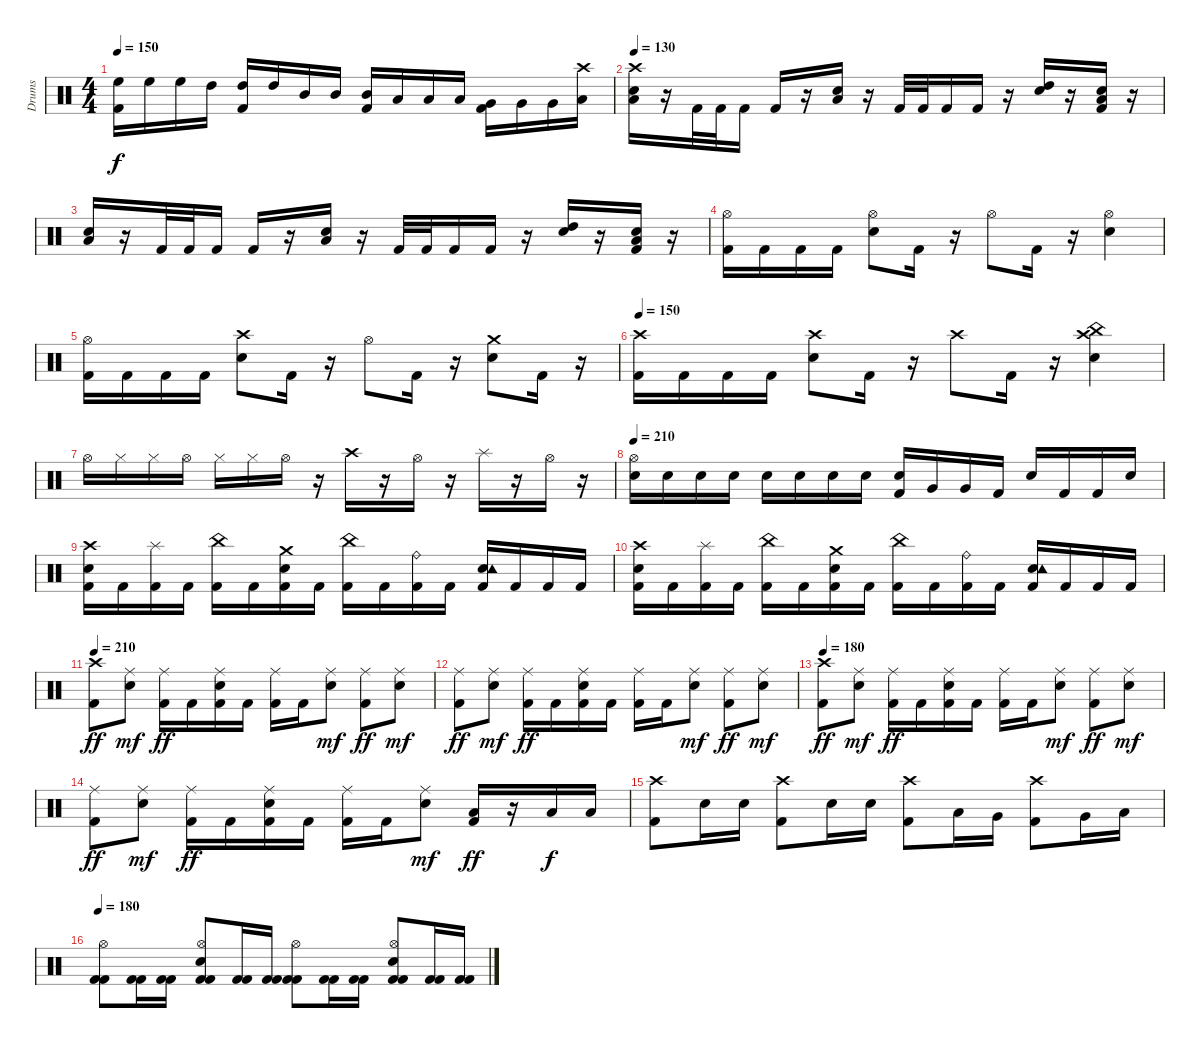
\track ("Drums" "Drums") {instrument percussion}
\staff {score}
\articulation defaults
\ts (4 4)
\tempo 150
\clef neutral
\ks c
("High Floor Tom (hit)" "Kick (hit) 2").16{dy f} "High Floor Tom (hit)".16 "High Floor Tom (hit)".16 "High Tom (hit)".16 ("High Tom (hit)" "Kick (hit) 2").16 "High Tom (hit)".16 "Mid Tom (hit)".16 "Mid Tom (hit)".16 ("Mid Tom (hit)" "Kick (hit) 2").16 "Low Tom (hit)".16 "Low Tom (hit)".16 "Low Tom (hit)".16 ("Very Low Tom (hit)" "Kick (hit) 2").16 "Very Low Tom (hit)".16 "Very Low Tom (hit)".16 ("Crash high (hit)" "Low Floor Tom (hit)").16 |
\tempo 130
("Snare (hit) 2" "Low Floor Tom (hit)" "Crash high (hit)").16 r.16 "Kick (hit) 2".32 "Kick (hit) 2".32 "Kick (hit) 2".16 "Kick (hit) 2".16 r.16 ("Snare (hit) 2" "Low Floor Tom (hit)").16 r.16 "Kick (hit) 2".32 "Kick (hit) 2".32 "Kick (hit) 2".16 "Kick (hit) 2".16 r.16 ("Snare (hit) 2" "High Tom (hit)").16 r.16 ("Kick (hit) 2" "Snare (hit) 2" "Low Tom (hit)").16 r.16 |
("Snare (hit) 2" "Low Floor Tom (hit)").16 r.16 "Kick (hit) 2".32 "Kick (hit) 2".32 "Kick (hit) 2".16 "Kick (hit) 2".16 r.16 ("Snare (hit) 2" "Low Floor Tom (hit)").16 r.16 "Kick (hit) 2".32 "Kick (hit) 2".32 "Kick (hit) 2".16 "Kick (hit) 2".16 r.16 ("Snare (hit) 2" "High Tom (hit)").16 r.16 ("Kick (hit) 2" "Snare (hit) 2" "Low Tom (hit)").16 r.16 |
("Kick (hit) 2" "Hi-Hat (open)").16 "Kick (hit) 2".16 "Kick (hit) 2".16 "Kick (hit) 2".16 ("Snare (hit) 2" "Hi-Hat (open)").8 "Kick (hit) 2".16 r.16 "Hi-Hat (open)".8 "Kick (hit) 2".16 r.16 ("Snare (hit) 2" "Hi-Hat (open)").4 |
("Kick (hit) 2" "Hi-Hat (open)").16 "Kick (hit) 2".16 "Kick (hit) 2".16 "Kick (hit) 2".16 ("Snare (hit) 2" "Crash high (hit)").8 "Kick (hit) 2".16 r.16 "Hi-Hat (open)".8 "Kick (hit) 2".16 r.16 ("Snare (hit) 2" "Crash medium (hit)").8 "Kick (hit) 2".16 r.16 |
\tempo 150
("Kick (hit) 2" "Crash high (hit)").16 "Kick (hit) 2".16 "Kick (hit) 2".16 "Kick (hit) 2".16 ("Snare (hit) 2" "Crash high (hit)").8 "Kick (hit) 2".16 r.16 "Crash high (hit)".8 "Kick (hit) 2".16 r.16 ("Snare (hit) 2" "China (hit)" "Crash high (hit)").4 |
"Hi-Hat (open)".16 "Hi-Hat (closed)".16 "Hi-Hat (closed)".16 "Hi-Hat (open)".16 "Hi-Hat (closed)".16 "Hi-Hat (closed)".16 "Hi-Hat (open)".16 r.16 "Crash high (hit)".16 r.16 "Hi-Hat (open)".16 r.16 "Splash (hit)".16 r.16 "Hi-Hat (open)".16 r.16 |
\tempo 210
("Hi-Hat (open)" "Snare (hit) 2").16 "Snare (hit) 2".16 "Snare (hit) 2".16 "Snare (hit) 2".16 "Snare (hit) 2".16 "Snare (hit) 2".16 "Snare (hit) 2".16 "Snare (hit) 2".16 ("Kick (hit) 2" "Snare (hit) 2").16 "Very Low Tom (hit)".16 "Very Low Tom (hit)".16 "Kick (hit) 2".16 "Snare (hit) 2".16 "Kick (hit) 2".16 "Kick (hit) 2".16 "Snare (hit) 2".16 |
("Kick (hit) 2" "Snare (hit) 2" "Crash high (hit)").16 "Kick (hit) 2".16 ("Kick (hit) 2" "Splash (hit)").16 "Kick (hit) 2".16 ("Kick (hit) 2" "China (hit)").16 "Kick (hit) 2".16 ("Kick (hit) 2" "Snare (hit) 2" "Crash medium (hit)").16 "Kick (hit) 2".16 ("Kick (hit) 2" "China (hit)").16 "Kick (hit) 2".16 ("Kick (hit) 2" "Ride (bell)").16 "Kick (hit) 2".16 ("Kick (hit) 2" "Snare (hit) 2" "Tambourine (hit)").16 "Kick (hit) 2".16 "Kick (hit) 2".16 "Kick (hit) 2".16 |
("Kick (hit) 2" "Snare (hit) 2" "Crash high (hit)").16 "Kick (hit) 2".16 ("Kick (hit) 2" "Splash (hit)").16 "Kick (hit) 2".16 ("Kick (hit) 2" "China (hit)").16 "Kick (hit) 2".16 ("Kick (hit) 2" "Snare (hit) 2" "Crash medium (hit)").16 "Kick (hit) 2".16 ("Kick (hit) 2" "China (hit)").16 "Kick (hit) 2".16 ("Kick (hit) 2" "Ride (bell)").16 "Kick (hit) 2".16 ("Kick (hit) 2" "Snare (hit) 2" "Tambourine (hit)").16 "Kick (hit) 2".16 "Kick (hit) 2".16 "Kick (hit) 2".16 |
\tempo 210
("Crash high (hit)" "Kick (hit) 2").8{dy ff} ("Ride (middle)" "Snare (hit) 2").8{dy mf} ("Ride (middle)" "Kick (hit) 2").16{dy ff} "Kick (hit) 2".16 ("Ride (middle)" "Snare (hit) 2" "Kick (hit) 2").16 "Kick (hit) 2".16 ("Ride (middle)" "Kick (hit) 2").16 "Kick (hit) 2".16 ("Ride (middle)" "Snare (hit) 2").8{dy mf} ("Ride (middle)" "Kick (hit) 2").8{dy ff} ("Ride (middle)" "Snare (hit) 2").8{dy mf} |
("Ride (middle)" "Kick (hit) 2").8{dy ff} ("Ride (middle)" "Snare (hit) 2").8{dy mf} ("Ride (middle)" "Kick (hit) 2").16{dy ff} "Kick (hit) 2".16 ("Ride (middle)" "Snare (hit) 2" "Kick (hit) 2").16 "Kick (hit) 2".16 ("Ride (middle)" "Kick (hit) 2").16 "Kick (hit) 2".16 ("Ride (middle)" "Snare (hit) 2").8{dy mf} ("Ride (middle)" "Kick (hit) 2").8{dy ff} ("Ride (middle)" "Snare (hit) 2").8{dy mf} |
\tempo 180
("Crash high (hit)" "Kick (hit) 2").8{dy ff} ("Ride (middle)" "Snare (hit) 2").8{dy mf} ("Ride (middle)" "Kick (hit) 2").16{dy ff} "Kick (hit) 2".16 ("Ride (middle)" "Snare (hit) 2" "Kick (hit) 2").16 "Kick (hit) 2".16 ("Ride (middle)" "Kick (hit) 2").16 "Kick (hit) 2".16 ("Ride (middle)" "Snare (hit) 2").8{dy mf} ("Ride (middle)" "Kick (hit) 2").8{dy ff} ("Ride (middle)" "Snare (hit) 2").8{dy mf} |
("Ride (middle)" "Kick (hit) 2").8{dy ff} ("Ride (middle)" "Snare (hit) 2").8{dy mf} ("Ride (middle)" "Kick (hit) 2").16{dy ff} "Kick (hit) 2".16 ("Ride (middle)" "Snare (hit) 2" "Kick (hit) 2").16 "Kick (hit) 2".16 ("Ride (middle)" "Kick (hit) 2").16 "Kick (hit) 2".16 ("Ride (middle)" "Snare (hit) 2").8{dy mf} ("Low Tom (hit)" "Kick (hit) 2").16{dy ff} r.16 "Low Floor Tom (hit)".16{dy f} "Low Floor Tom (hit)".16 |
("Crash high (hit)" "Kick (hit) 2").8 "Electric Snare (hit)".16 "Electric Snare (hit)".16 ("Crash high (hit)" "Kick (hit) 2").8 "Electric Snare (hit)".16 "Electric Snare (hit)".16 ("Crash high (hit)" "Kick (hit) 2").8 "Low Tom (hit)".16 "Very Low Tom (hit)".16 ("Crash high (hit)" "Kick (hit) 2").8 "Very Low Tom (hit)".16 "Low Floor Tom (hit)".16 |
\tempo 180
("Hi-Hat (open)" "Kick (hit) 2" "Kick (hit) 2").8 ("Kick (hit) 2" "Kick (hit) 2").16 ("Kick (hit) 2" "Kick (hit) 2").16 ("Electric Snare (hit)" "Hi-Hat (open)" "Kick (hit) 2" "Kick (hit) 2").8 ("Kick (hit) 2" "Kick (hit) 2").16 ("Kick (hit) 2" "Kick (hit) 2").16 ("Hi-Hat (open)" "Kick (hit) 2" "Kick (hit) 2").8 ("Kick (hit) 2" "Kick (hit) 2").16 ("Kick (hit) 2" "Kick (hit) 2").16 ("Electric Snare (hit)" "Hi-Hat (open)" "Kick (hit) 2" "Kick (hit) 2").8 ("Kick (hit) 2" "Kick (hit) 2").16 ("Kick (hit) 2" "Kick (hit) 2").16
